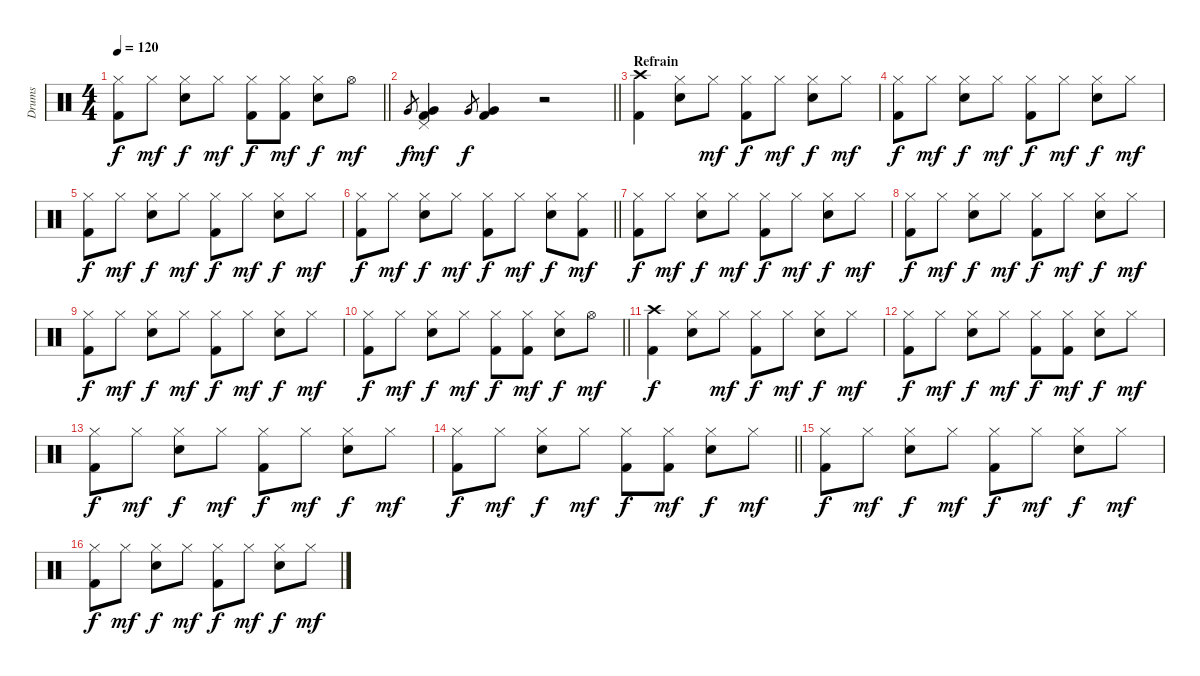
\track ("Drums" "Drums") {instrument percussion}
\staff {score}
\articulation defaults
\ts (4 4)
\tempo 120
\clef neutral
\barLineRight lightlight
\ks c
("Hi-Hat (closed)" "Kick (hit) 2").8{dy f} "Hi-Hat (closed)".8{dy mf} ("Hi-Hat (closed)" "Snare (hit) 2").8{dy f} "Hi-Hat (closed)".8{dy mf} ("Hi-Hat (closed)" "Kick (hit) 2").8{dy f} ("Hi-Hat (closed)" "Kick (hit) 2").8{dy mf} ("Hi-Hat (closed)" "Snare (hit) 2").8{dy f} "Hi-Hat (open)".8{dy mf} |
\barLineRight lightlight "Very Low Tom (hit)".8{gr dy f}
("Pedal Hi-Hat (hit)" "Very Low Tom (hit)" "Kick (hit) 2").4{dy mf} "Very Low Tom (hit)".8{gr dy f} ("Very Low Tom (hit)" "Kick (hit) 2").4 r.2 |
\section ("" "Refrain")
("Crash high (hit)" "Kick (hit) 2").4 ("Hi-Hat (closed)" "Snare (hit) 2").8 "Hi-Hat (closed)".8{dy mf} ("Hi-Hat (closed)" "Kick (hit) 2").8{dy f} "Hi-Hat (closed)".8{dy mf} ("Hi-Hat (closed)" "Snare (hit) 2").8{dy f} "Hi-Hat (closed)".8{dy mf} |
("Hi-Hat (closed)" "Kick (hit) 2").8{dy f} "Hi-Hat (closed)".8{dy mf} ("Hi-Hat (closed)" "Snare (hit) 2").8{dy f} "Hi-Hat (closed)".8{dy mf} ("Hi-Hat (closed)" "Kick (hit) 2").8{dy f} "Hi-Hat (closed)".8{dy mf} ("Hi-Hat (closed)" "Snare (hit) 2").8{dy f} "Hi-Hat (closed)".8{dy mf} |
("Hi-Hat (closed)" "Kick (hit) 2").8{dy f} "Hi-Hat (closed)".8{dy mf} ("Hi-Hat (closed)" "Snare (hit) 2").8{dy f} "Hi-Hat (closed)".8{dy mf} ("Hi-Hat (closed)" "Kick (hit) 2").8{dy f} "Hi-Hat (closed)".8{dy mf} ("Hi-Hat (closed)" "Snare (hit) 2").8{dy f} "Hi-Hat (closed)".8{dy mf} |
\barLineRight lightlight
("Hi-Hat (closed)" "Kick (hit) 2").8{dy f} "Hi-Hat (closed)".8{dy mf} ("Hi-Hat (closed)" "Snare (hit) 2").8{dy f} "Hi-Hat (closed)".8{dy mf} ("Hi-Hat (closed)" "Kick (hit) 2").8{dy f} "Hi-Hat (closed)".8{dy mf} ("Hi-Hat (closed)" "Snare (hit) 2").8{dy f} ("Hi-Hat (closed)" "Kick (hit) 2").8{dy mf} |
("Hi-Hat (closed)" "Kick (hit) 2").8{dy f} "Hi-Hat (closed)".8{dy mf} ("Hi-Hat (closed)" "Snare (hit) 2").8{dy f} "Hi-Hat (closed)".8{dy mf} ("Hi-Hat (closed)" "Kick (hit) 2").8{dy f} "Hi-Hat (closed)".8{dy mf} ("Hi-Hat (closed)" "Snare (hit) 2").8{dy f} "Hi-Hat (closed)".8{dy mf} |
("Hi-Hat (closed)" "Kick (hit) 2").8{dy f} "Hi-Hat (closed)".8{dy mf} ("Hi-Hat (closed)" "Snare (hit) 2").8{dy f} "Hi-Hat (closed)".8{dy mf} ("Hi-Hat (closed)" "Kick (hit) 2").8{dy f} "Hi-Hat (closed)".8{dy mf} ("Hi-Hat (closed)" "Snare (hit) 2").8{dy f} "Hi-Hat (closed)".8{dy mf} |
("Hi-Hat (closed)" "Kick (hit) 2").8{dy f} "Hi-Hat (closed)".8{dy mf} ("Hi-Hat (closed)" "Snare (hit) 2").8{dy f} "Hi-Hat (closed)".8{dy mf} ("Hi-Hat (closed)" "Kick (hit) 2").8{dy f} "Hi-Hat (closed)".8{dy mf} ("Hi-Hat (closed)" "Snare (hit) 2").8{dy f} "Hi-Hat (closed)".8{dy mf} |
\barLineRight lightlight
("Hi-Hat (closed)" "Kick (hit) 2").8{dy f} "Hi-Hat (closed)".8{dy mf} ("Hi-Hat (closed)" "Snare (hit) 2").8{dy f} "Hi-Hat (closed)".8{dy mf} ("Hi-Hat (closed)" "Kick (hit) 2").8{dy f} ("Hi-Hat (closed)" "Kick (hit) 2").8{dy mf} ("Hi-Hat (closed)" "Snare (hit) 2").8{dy f} "Hi-Hat (open)".8{dy mf} |
("Crash high (hit)" "Kick (hit) 2").4{dy f} ("Hi-Hat (closed)" "Snare (hit) 2").8 "Hi-Hat (closed)".8{dy mf} ("Hi-Hat (closed)" "Kick (hit) 2").8{dy f} "Hi-Hat (closed)".8{dy mf} ("Hi-Hat (closed)" "Snare (hit) 2").8{dy f} "Hi-Hat (closed)".8{dy mf} |
("Hi-Hat (closed)" "Kick (hit) 2").8{dy f} "Hi-Hat (closed)".8{dy mf} ("Hi-Hat (closed)" "Snare (hit) 2").8{dy f} "Hi-Hat (closed)".8{dy mf} ("Hi-Hat (closed)" "Kick (hit) 2").8{dy f} ("Hi-Hat (closed)" "Kick (hit) 2").8{dy mf} ("Hi-Hat (closed)" "Snare (hit) 2").8{dy f} "Hi-Hat (closed)".8{dy mf} |
("Hi-Hat (closed)" "Kick (hit) 2").8{dy f} "Hi-Hat (closed)".8{dy mf} ("Hi-Hat (closed)" "Snare (hit) 2").8{dy f} "Hi-Hat (closed)".8{dy mf} ("Hi-Hat (closed)" "Kick (hit) 2").8{dy f} "Hi-Hat (closed)".8{dy mf} ("Hi-Hat (closed)" "Snare (hit) 2").8{dy f} "Hi-Hat (closed)".8{dy mf} |
\barLineRight lightlight
("Hi-Hat (closed)" "Kick (hit) 2").8{dy f} "Hi-Hat (closed)".8{dy mf} ("Hi-Hat (closed)" "Snare (hit) 2").8{dy f} "Hi-Hat (closed)".8{dy mf} ("Hi-Hat (closed)" "Kick (hit) 2").8{dy f} ("Hi-Hat (closed)" "Kick (hit) 2").8{dy mf} ("Hi-Hat (closed)" "Snare (hit) 2").8{dy f} "Hi-Hat (closed)".8{dy mf} |
("Hi-Hat (closed)" "Kick (hit) 2").8{dy f} "Hi-Hat (closed)".8{dy mf} ("Hi-Hat (closed)" "Snare (hit) 2").8{dy f} "Hi-Hat (closed)".8{dy mf} ("Hi-Hat (closed)" "Kick (hit) 2").8{dy f} "Hi-Hat (closed)".8{dy mf} ("Hi-Hat (closed)" "Snare (hit) 2").8{dy f} "Hi-Hat (closed)".8{dy mf} |
("Hi-Hat (closed)" "Kick (hit) 2").8{dy f} "Hi-Hat (closed)".8{dy mf} ("Hi-Hat (closed)" "Snare (hit) 2").8{dy f} "Hi-Hat (closed)".8{dy mf} ("Hi-Hat (closed)" "Kick (hit) 2").8{dy f} "Hi-Hat (closed)".8{dy mf} ("Hi-Hat (closed)" "Snare (hit) 2").8{dy f} "Hi-Hat (closed)".8{dy mf}
